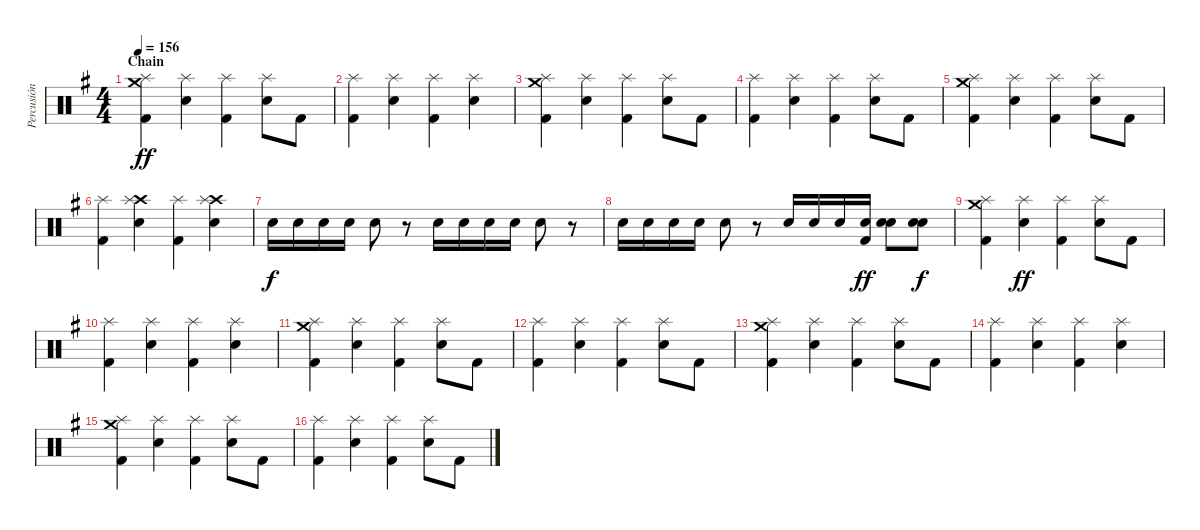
\track ("Percusión" "Percusión") {instrument percussion}
\staff {score}
\articulation defaults
\ts (4 4)
\section ("" "Chain")
\tempo 156
\clef neutral
\ks eminor
("Crash medium (hit)" "Splash (hit)" "Kick (hit) 2").4{dy ff} ("Splash (hit)" "Electric Snare (hit)").4 ("Splash (hit)" "Kick (hit) 2").4 ("Splash (hit)" "Electric Snare (hit)").8 "Kick (hit) 2".8 |
("Splash (hit)" "Kick (hit) 2").4 ("Splash (hit)" "Electric Snare (hit)").4 ("Splash (hit)" "Kick (hit) 2").4 ("Splash (hit)" "Electric Snare (hit)").4 |
("Crash medium (hit)" "Splash (hit)" "Kick (hit) 2").4 ("Splash (hit)" "Electric Snare (hit)").4 ("Splash (hit)" "Kick (hit) 2").4 ("Splash (hit)" "Electric Snare (hit)").8 "Kick (hit) 2".8 |
("Splash (hit)" "Kick (hit) 2").4 ("Splash (hit)" "Electric Snare (hit)").4 ("Splash (hit)" "Kick (hit) 2").4 ("Splash (hit)" "Electric Snare (hit)").8 "Kick (hit) 2".8 |
("Crash medium (hit)" "Splash (hit)" "Kick (hit) 2").4 ("Splash (hit)" "Electric Snare (hit)").4 ("Splash (hit)" "Kick (hit) 2").4 ("Splash (hit)" "Electric Snare (hit)").8 "Kick (hit) 2".8 |
("Splash (hit)" "Kick (hit) 2").4 ("Crash high (hit)" "Splash (hit)" "Electric Snare (hit)").4 ("Splash (hit)" "Kick (hit) 2").4 ("Crash high (hit)" "Splash (hit)" "Electric Snare (hit)").4 |
"Electric Snare (hit)".16{dy f} "Electric Snare (hit)".16 "Electric Snare (hit)".16 "Electric Snare (hit)".16 "Electric Snare (hit)".8 r.8 "Electric Snare (hit)".16 "Electric Snare (hit)".16 "Electric Snare (hit)".16 "Electric Snare (hit)".16 "Electric Snare (hit)".8 r.8 |
"Electric Snare (hit)".16 "Electric Snare (hit)".16 "Electric Snare (hit)".16 "Electric Snare (hit)".16 "Electric Snare (hit)".8 r.8 "Electric Snare (hit)".16 "Electric Snare (hit)".16 "Electric Snare (hit)".16 ("Electric Snare (hit)" "Kick (hit) 2").16{dy ff} ("Electric Snare (hit)" "Electric Snare (hit)").8 ("Electric Snare (hit)" "Electric Snare (hit)").8{dy f} |
("Crash medium (hit)" "Splash (hit)" "Kick (hit) 2").4 ("Splash (hit)" "Electric Snare (hit)").4{dy ff} ("Splash (hit)" "Kick (hit) 2").4 ("Splash (hit)" "Electric Snare (hit)").8 "Kick (hit) 2".8 |
("Splash (hit)" "Kick (hit) 2").4 ("Splash (hit)" "Electric Snare (hit)").4 ("Splash (hit)" "Kick (hit) 2").4 ("Splash (hit)" "Electric Snare (hit)").4 |
("Crash medium (hit)" "Splash (hit)" "Kick (hit) 2").4 ("Splash (hit)" "Electric Snare (hit)").4 ("Splash (hit)" "Kick (hit) 2").4 ("Splash (hit)" "Electric Snare (hit)").8 "Kick (hit) 2".8 |
("Splash (hit)" "Kick (hit) 2").4 ("Splash (hit)" "Electric Snare (hit)").4 ("Splash (hit)" "Kick (hit) 2").4 ("Splash (hit)" "Electric Snare (hit)").8 "Kick (hit) 2".8 |
("Crash medium (hit)" "Splash (hit)" "Kick (hit) 2").4 ("Splash (hit)" "Electric Snare (hit)").4 ("Splash (hit)" "Kick (hit) 2").4 ("Splash (hit)" "Electric Snare (hit)").8 "Kick (hit) 2".8 |
("Splash (hit)" "Kick (hit) 2").4 ("Splash (hit)" "Electric Snare (hit)").4 ("Splash (hit)" "Kick (hit) 2").4 ("Splash (hit)" "Electric Snare (hit)").4 |
("Crash medium (hit)" "Splash (hit)" "Kick (hit) 2").4 ("Splash (hit)" "Electric Snare (hit)").4 ("Splash (hit)" "Kick (hit) 2").4 ("Splash (hit)" "Electric Snare (hit)").8 "Kick (hit) 2".8 |
("Splash (hit)" "Kick (hit) 2").4 ("Splash (hit)" "Electric Snare (hit)").4 ("Splash (hit)" "Kick (hit) 2").4 ("Splash (hit)" "Electric Snare (hit)").8 "Kick (hit) 2".8
